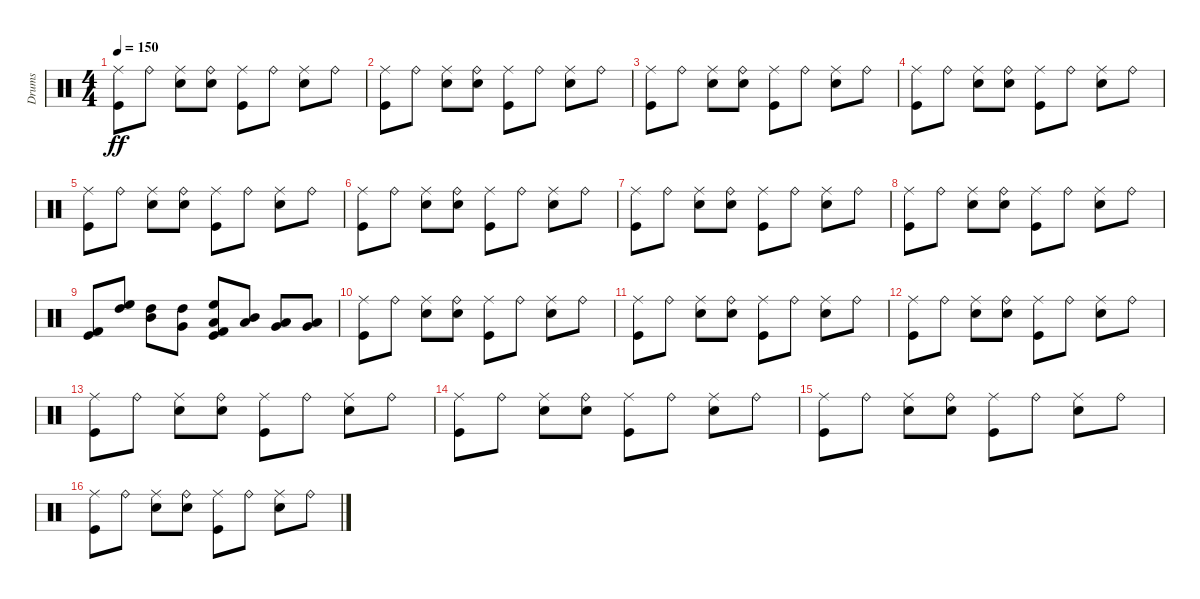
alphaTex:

\track ("Drums" "Drums") {instrument percussion}
\staff {score}
\articulation defaults
\ts (4 4)
\tempo 150
\clef neutral
\ks c
("Kick (hit)" "Ride (middle)").8{dy ff} "Ride (bell)".8 ("Snare (hit) 2" "Ride (middle)").8 ("Snare (hit) 2" "Ride (bell)").8 ("Kick (hit)" "Ride (middle)").8 "Ride (bell)".8 ("Snare (hit) 2" "Ride (middle)").8 "Ride (bell)".8 |
("Kick (hit)" "Ride (middle)").8 "Ride (bell)".8 ("Snare (hit) 2" "Ride (middle)").8 ("Snare (hit) 2" "Ride (bell)").8 ("Kick (hit)" "Ride (middle)").8 "Ride (bell)".8 ("Snare (hit) 2" "Ride (middle)").8 "Ride (bell)".8 |
("Kick (hit)" "Ride (middle)").8 "Ride (bell)".8 ("Snare (hit) 2" "Ride (middle)").8 ("Snare (hit) 2" "Ride (bell)").8 ("Kick (hit)" "Ride (middle)").8 "Ride (bell)".8 ("Snare (hit) 2" "Ride (middle)").8 "Ride (bell)".8 |
("Kick (hit)" "Ride (middle)").8 "Ride (bell)".8 ("Snare (hit) 2" "Ride (middle)").8 ("Snare (hit) 2" "Ride (bell)").8 ("Kick (hit)" "Ride (middle)").8 "Ride (bell)".8 ("Snare (hit) 2" "Ride (middle)").8 "Ride (bell)".8 |
("Kick (hit)" "Ride (middle)").8 "Ride (bell)".8 ("Snare (hit) 2" "Ride (middle)").8 ("Snare (hit) 2" "Ride (bell)").8 ("Kick (hit)" "Ride (middle)").8 "Ride (bell)".8 ("Snare (hit) 2" "Ride (middle)").8 "Ride (bell)".8 |
("Kick (hit)" "Ride (middle)").8 "Ride (bell)".8 ("Snare (hit) 2" "Ride (middle)").8 ("Snare (hit) 2" "Ride (bell)").8 ("Kick (hit)" "Ride (middle)").8 "Ride (bell)".8 ("Snare (hit) 2" "Ride (middle)").8 "Ride (bell)".8 |
("Kick (hit)" "Ride (middle)").8 "Ride (bell)".8 ("Snare (hit) 2" "Ride (middle)").8 ("Snare (hit) 2" "Ride (bell)").8 ("Kick (hit)" "Ride (middle)").8 "Ride (bell)".8 ("Snare (hit) 2" "Ride (middle)").8 "Ride (bell)".8 |
("Kick (hit)" "Ride (middle)").8 "Ride (bell)".8 ("Snare (hit) 2" "Ride (middle)").8 ("Snare (hit) 2" "Ride (bell)").8 ("Kick (hit)" "Ride (middle)").8 "Ride (bell)".8 ("Snare (hit) 2" "Ride (middle)").8 "Ride (bell)".8 |
("Kick (hit)" "Kick (hit) 2").8 ("High Floor Tom (hit)" "High Tom (hit)").8 ("Mid Tom (hit)" "High Tom (hit)").8 ("Very Low Tom (hit)" "High Tom (hit)").8 ("Kick (hit)" "Kick (hit) 2" "High Floor Tom (hit)" "Low Tom (hit)").8 ("Mid Tom (hit)" "Low Tom (hit)").8 ("Very Low Tom (hit)" "Low Tom (hit)").8 ("Very Low Tom (hit)" "Low Floor Tom (hit)").8 |
("Kick (hit)" "Ride (middle)").8 "Ride (bell)".8 ("Snare (hit) 2" "Ride (middle)").8 ("Snare (hit) 2" "Ride (bell)").8 ("Kick (hit)" "Ride (middle)").8 "Ride (bell)".8 ("Snare (hit) 2" "Ride (middle)").8 "Ride (bell)".8 |
("Kick (hit)" "Ride (middle)").8 "Ride (bell)".8 ("Snare (hit) 2" "Ride (middle)").8 ("Snare (hit) 2" "Ride (bell)").8 ("Kick (hit)" "Ride (middle)").8 "Ride (bell)".8 ("Snare (hit) 2" "Ride (middle)").8 "Ride (bell)".8 |
("Kick (hit)" "Ride (middle)").8 "Ride (bell)".8 ("Snare (hit) 2" "Ride (middle)").8 ("Snare (hit) 2" "Ride (bell)").8 ("Kick (hit)" "Ride (middle)").8 "Ride (bell)".8 ("Snare (hit) 2" "Ride (middle)").8 "Ride (bell)".8 |
("Kick (hit)" "Ride (middle)").8 "Ride (bell)".8 ("Snare (hit) 2" "Ride (middle)").8 ("Snare (hit) 2" "Ride (bell)").8 ("Kick (hit)" "Ride (middle)").8 "Ride (bell)".8 ("Snare (hit) 2" "Ride (middle)").8 "Ride (bell)".8 |
("Kick (hit)" "Ride (middle)").8 "Ride (bell)".8 ("Snare (hit) 2" "Ride (middle)").8 ("Snare (hit) 2" "Ride (bell)").8 ("Kick (hit)" "Ride (middle)").8 "Ride (bell)".8 ("Snare (hit) 2" "Ride (middle)").8 "Ride (bell)".8 |
("Kick (hit)" "Ride (middle)").8 "Ride (bell)".8 ("Snare (hit) 2" "Ride (middle)").8 ("Snare (hit) 2" "Ride (bell)").8 ("Kick (hit)" "Ride (middle)").8 "Ride (bell)".8 ("Snare (hit) 2" "Ride (middle)").8 "Ride (bell)".8 |
("Kick (hit)" "Ride (middle)").8 "Ride (bell)".8 ("Snare (hit) 2" "Ride (middle)").8 ("Snare (hit) 2" "Ride (bell)").8 ("Kick (hit)" "Ride (middle)").8 "Ride (bell)".8 ("Snare (hit) 2" "Ride (middle)").8 "Ride (bell)".8
